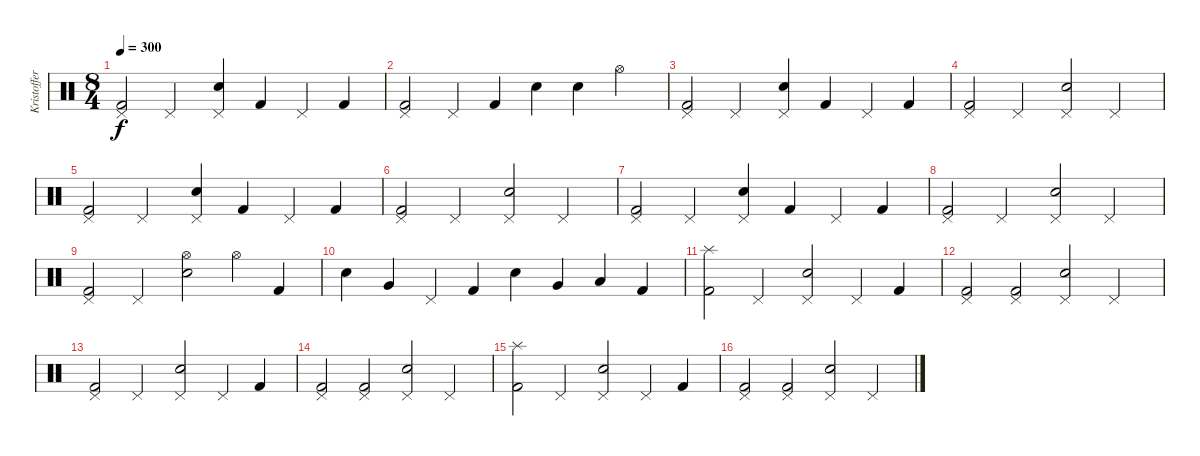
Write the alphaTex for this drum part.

\track ("Kristoffer Söderström" "Kristoffer") {instrument percussion}
\staff {score}
\articulation defaults
\ts (8 4)
\tempo 300
\clef neutral
\ks c
("Pedal Hi-Hat (hit)" "Kick (hit) 2").2{dy f} "Pedal Hi-Hat (hit)".2 ("Snare (hit) 2" "Pedal Hi-Hat (hit)").4 "Kick (hit) 2".4 "Pedal Hi-Hat (hit)".4 "Kick (hit) 2".4 |
("Pedal Hi-Hat (hit)" "Kick (hit) 2").2 "Pedal Hi-Hat (hit)".4 "Kick (hit) 2".4 "Snare (hit) 2".4 "Snare (hit) 2".4 "Hi-Hat (open)".2 |
("Pedal Hi-Hat (hit)" "Kick (hit) 2").2 "Pedal Hi-Hat (hit)".2 ("Snare (hit) 2" "Pedal Hi-Hat (hit)").4 "Kick (hit) 2".4 "Pedal Hi-Hat (hit)".4 "Kick (hit) 2".4 |
("Pedal Hi-Hat (hit)" "Kick (hit) 2").2 "Pedal Hi-Hat (hit)".2 ("Snare (hit) 2" "Pedal Hi-Hat (hit)").2 "Pedal Hi-Hat (hit)".2 |
("Pedal Hi-Hat (hit)" "Kick (hit) 2").2 "Pedal Hi-Hat (hit)".2 ("Snare (hit) 2" "Pedal Hi-Hat (hit)").4 "Kick (hit) 2".4 "Pedal Hi-Hat (hit)".4 "Kick (hit) 2".4 |
("Pedal Hi-Hat (hit)" "Kick (hit) 2").2 "Pedal Hi-Hat (hit)".2 ("Snare (hit) 2" "Pedal Hi-Hat (hit)").2 "Pedal Hi-Hat (hit)".2 |
("Pedal Hi-Hat (hit)" "Kick (hit) 2").2 "Pedal Hi-Hat (hit)".2 ("Snare (hit) 2" "Pedal Hi-Hat (hit)").4 "Kick (hit) 2".4 "Pedal Hi-Hat (hit)".4 "Kick (hit) 2".4 |
("Pedal Hi-Hat (hit)" "Kick (hit) 2").2 "Pedal Hi-Hat (hit)".2 ("Snare (hit) 2" "Pedal Hi-Hat (hit)").2 "Pedal Hi-Hat (hit)".2 |
("Pedal Hi-Hat (hit)" "Kick (hit) 2").2 "Pedal Hi-Hat (hit)".2 ("Snare (hit) 2" "Hi-Hat (open)").2 "Hi-Hat (open)".4 "Kick (hit) 2".4 |
"Snare (hit) 2".4 "Very Low Tom (hit)".4 "Pedal Hi-Hat (hit)".4 "Kick (hit) 2".4 "Snare (hit) 2".4 "Very Low Tom (hit)".4 "Low Floor Tom (hit)".4 "Kick (hit) 2".4 |
("Splash (hit)" "Kick (hit) 2").2 "Pedal Hi-Hat (hit)".2 ("Snare (hit) 2" "Pedal Hi-Hat (hit)").2 "Pedal Hi-Hat (hit)".4 "Kick (hit) 2".4 |
("Pedal Hi-Hat (hit)" "Kick (hit) 2").2 ("Pedal Hi-Hat (hit)" "Kick (hit) 2").2 ("Snare (hit) 2" "Pedal Hi-Hat (hit)").2 "Pedal Hi-Hat (hit)".2 |
("Pedal Hi-Hat (hit)" "Kick (hit) 2").2 "Pedal Hi-Hat (hit)".2 ("Snare (hit) 2" "Pedal Hi-Hat (hit)").2 "Pedal Hi-Hat (hit)".4 "Kick (hit) 2".4 |
("Pedal Hi-Hat (hit)" "Kick (hit) 2").2 ("Pedal Hi-Hat (hit)" "Kick (hit) 2").2 ("Snare (hit) 2" "Pedal Hi-Hat (hit)").2 "Pedal Hi-Hat (hit)".2 |
("Splash (hit)" "Kick (hit) 2").2 "Pedal Hi-Hat (hit)".2 ("Snare (hit) 2" "Pedal Hi-Hat (hit)").2 "Pedal Hi-Hat (hit)".4 "Kick (hit) 2".4 |
("Pedal Hi-Hat (hit)" "Kick (hit) 2").2 ("Pedal Hi-Hat (hit)" "Kick (hit) 2").2 ("Snare (hit) 2" "Pedal Hi-Hat (hit)").2 "Pedal Hi-Hat (hit)".2
